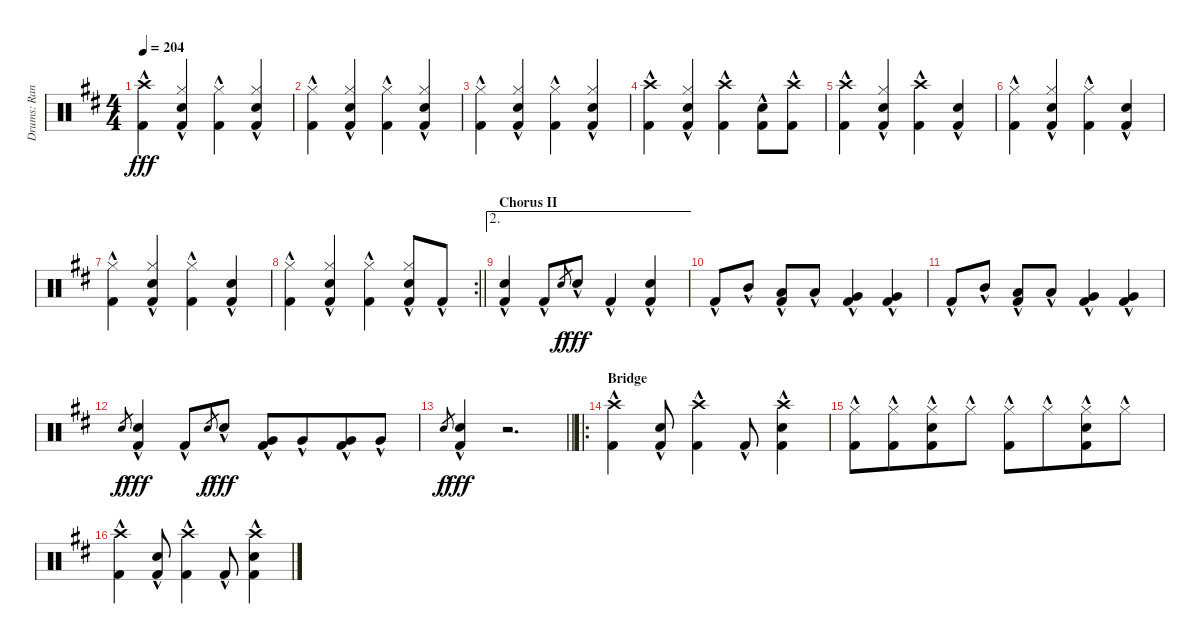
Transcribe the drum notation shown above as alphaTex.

\track ("Drums: Randy" "Drums: Ran") {instrument percussion}
\staff {score}
\articulation defaults
\ts (4 4)
\tempo 204
\clef neutral
\ks d
("Crash high (hit)"{hac} "Kick (hit) 2"{hac}).4{dy fff} ("Hi-Hat (closed)"{hac} "Snare (hit) 2"{hac} "Kick (hit) 2"{hac}).4 ("Hi-Hat (closed)"{hac} "Kick (hit) 2"{hac}).4 ("Hi-Hat (closed)"{hac} "Snare (hit) 2"{hac} "Kick (hit) 2"{hac}).4 |
("Hi-Hat (closed)"{hac} "Kick (hit) 2"{hac}).4 ("Hi-Hat (closed)"{hac} "Snare (hit) 2"{hac} "Kick (hit) 2"{hac}).4 ("Hi-Hat (closed)"{hac} "Kick (hit) 2"{hac}).4 ("Hi-Hat (closed)"{hac} "Snare (hit) 2"{hac} "Kick (hit) 2"{hac}).4 |
("Hi-Hat (closed)"{hac} "Kick (hit) 2"{hac}).4 ("Hi-Hat (closed)"{hac} "Snare (hit) 2"{hac} "Kick (hit) 2"{hac}).4 ("Hi-Hat (closed)"{hac} "Kick (hit) 2"{hac}).4 ("Hi-Hat (closed)"{hac} "Snare (hit) 2"{hac} "Kick (hit) 2"{hac}).4 |
("Crash high (hit)"{hac} "Kick (hit) 2"{hac}).4 ("Hi-Hat (closed)"{hac} "Snare (hit) 2"{hac} "Kick (hit) 2"{hac}).4 ("Crash high (hit)"{hac} "Kick (hit) 2"{hac}).4 ("Snare (hit) 2"{hac} "Kick (hit) 2"{hac}).8 ("Crash high (hit)"{hac} "Kick (hit) 2"{hac}).8 |
("Crash high (hit)"{hac} "Kick (hit) 2"{hac}).4 ("Hi-Hat (closed)"{hac} "Snare (hit) 2"{hac} "Kick (hit) 2"{hac}).4 ("Crash high (hit)"{hac} "Kick (hit) 2"{hac}).4 ("Snare (hit) 2"{hac} "Kick (hit) 2"{hac}).4 |
("Hi-Hat (closed)"{hac} "Kick (hit) 2"{hac}).4 ("Hi-Hat (closed)"{hac} "Snare (hit) 2"{hac} "Kick (hit) 2"{hac}).4 ("Hi-Hat (closed)"{hac} "Kick (hit) 2"{hac}).4 ("Snare (hit) 2"{hac} "Kick (hit) 2"{hac}).4 |
("Hi-Hat (closed)"{hac} "Kick (hit) 2"{hac}).4 ("Hi-Hat (closed)"{hac} "Snare (hit) 2"{hac} "Kick (hit) 2"{hac}).4 ("Hi-Hat (closed)"{hac} "Kick (hit) 2"{hac}).4 ("Snare (hit) 2"{hac} "Kick (hit) 2"{hac}).4 |
\rc 2
\barLineRight lightlight
("Hi-Hat (closed)"{hac} "Kick (hit) 2"{hac}).4 ("Hi-Hat (closed)"{hac} "Snare (hit) 2"{hac} "Kick (hit) 2"{hac}).4 ("Hi-Hat (closed)"{hac} "Kick (hit) 2"{hac}).4 ("Hi-Hat (closed)"{hac} "Snare (hit) 2"{hac} "Kick (hit) 2"{hac}).8 "Kick (hit) 2"{hac}.8 |
\ae 2
\section ("" "Chorus II")
("Snare (hit) 2"{hac} "Kick (hit) 2"{hac}).4 "Kick (hit) 2"{hac}.8 "Snare (hit) 2".8{gr dy f} "Snare (hit) 2"{hac}.8{dy fff} "Kick (hit) 2"{hac}.4 ("Snare (hit) 2"{hac} "Kick (hit) 2"{hac}).4 |
"Kick (hit) 2"{hac}.8 "Mid Tom (hit)"{hac}.8 ("Low Tom (hit)"{hac} "Kick (hit) 2"{hac}).8 "Low Tom (hit)"{hac}.8 ("Very Low Tom (hit)"{hac} "Kick (hit) 2"{hac}).4 ("Very Low Tom (hit)"{hac} "Kick (hit) 2"{hac}).4 |
"Kick (hit) 2"{hac}.8 "Mid Tom (hit)"{hac}.8 ("Low Tom (hit)"{hac} "Kick (hit) 2"{hac}).8 "Low Tom (hit)"{hac}.8 ("Very Low Tom (hit)"{hac} "Kick (hit) 2"{hac}).4 ("Very Low Tom (hit)"{hac} "Kick (hit) 2"{hac}).4 |
"Snare (hit) 2".8{gr dy f} ("Snare (hit) 2"{hac} "Kick (hit) 2"{hac}).4{dy fff} "Kick (hit) 2"{hac}.8 "Snare (hit) 2".8{gr dy f} "Snare (hit) 2"{hac}.8{dy fff} ("Very Low Tom (hit)"{hac} "Kick (hit) 2"{hac}).8 "Very Low Tom (hit)"{hac}.8{beam merge} ("Very Low Tom (hit)"{hac} "Kick (hit) 2"{hac}).8 "Very Low Tom (hit)"{hac}.8 |
\barLineRight lightlight "Snare (hit) 2".8{gr dy f}
("Snare (hit) 2"{hac} "Kick (hit) 2"{hac}).4{dy fff} r.2{d} |
\ro
\section ("" "Bridge")
("Crash high (hit)"{hac} "Kick (hit) 2"{hac}).4 ("Snare (hit) 2"{hac} "Kick (hit) 2"{hac}).8 ("Crash high (hit)"{hac} "Kick (hit) 2"{hac}).4 "Kick (hit) 2"{hac}.8 ("Crash high (hit)"{hac} "Snare (hit) 2"{hac} "Kick (hit) 2"{hac}).4 |
("Hi-Hat (closed)"{hac} "Kick (hit) 2"{hac}).8 ("Hi-Hat (closed)"{hac} "Kick (hit) 2"{hac}).8{beam merge} ("Hi-Hat (closed)"{hac} "Snare (hit) 2"{hac} "Kick (hit) 2"{hac}).8 "Hi-Hat (closed)"{hac}.8 ("Hi-Hat (closed)"{hac} "Kick (hit) 2"{hac}).8 "Hi-Hat (closed)"{hac}.8{beam merge} ("Hi-Hat (closed)"{hac} "Snare (hit) 2"{hac} "Kick (hit) 2"{hac}).8 "Hi-Hat (closed)"{hac}.8 |
("Crash high (hit)"{hac} "Kick (hit) 2"{hac}).4 ("Snare (hit) 2"{hac} "Kick (hit) 2"{hac}).8 ("Crash high (hit)"{hac} "Kick (hit) 2"{hac}).4 "Kick (hit) 2"{hac}.8 ("Crash high (hit)"{hac} "Snare (hit) 2"{hac} "Kick (hit) 2"{hac}).4
